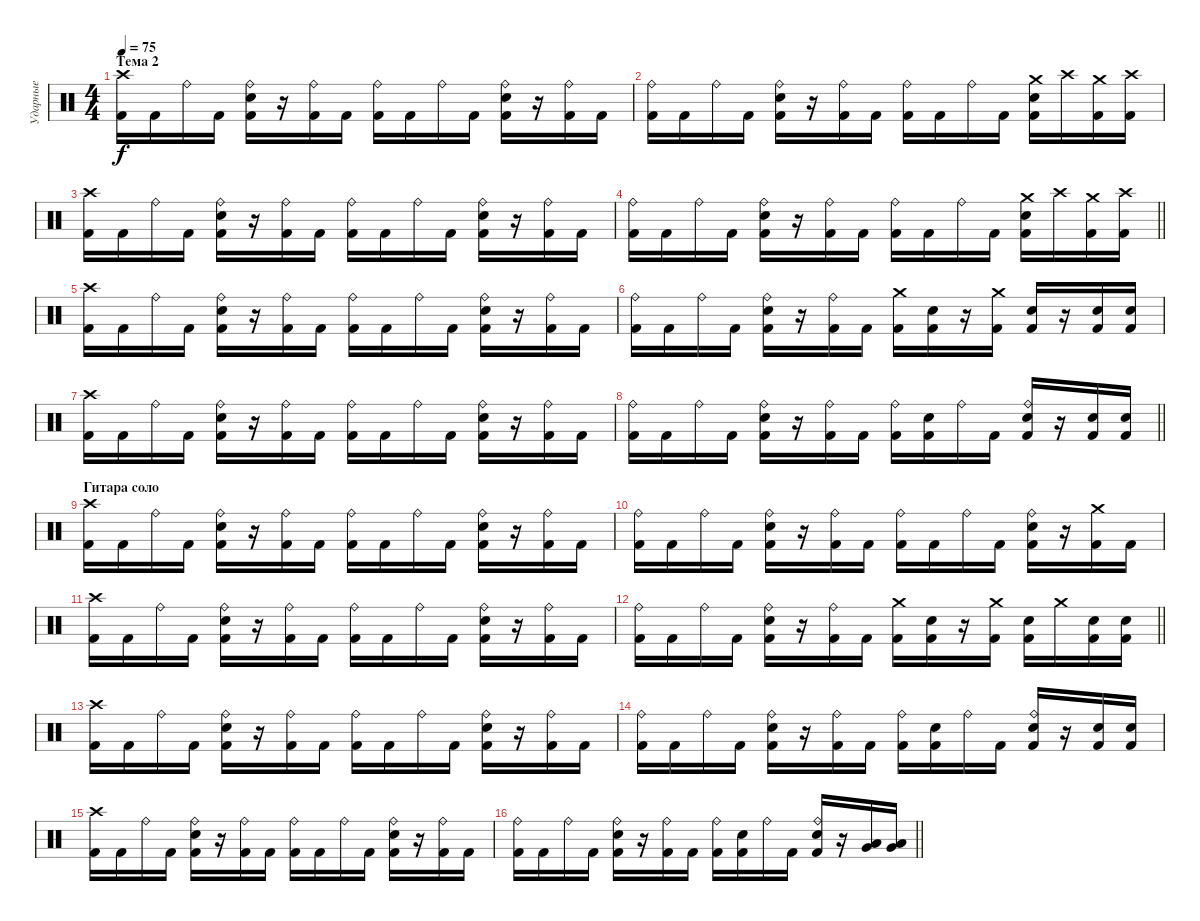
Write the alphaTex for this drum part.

\track ("Ударные" "Ударные") {instrument percussion}
\staff {score}
\articulation defaults
\ts (4 4)
\section ("" "Тема 2")
\tempo 75
\clef neutral
\ks c
("Kick (hit) 2" "Crash high (hit)").16{dy f} "Kick (hit) 2".16 "Ride (bell)".16 "Kick (hit) 2".16 ("Kick (hit) 2" "Snare (hit) 2" "Ride (bell)").16 r.16 ("Kick (hit) 2" "Ride (bell)").16 "Kick (hit) 2".16 ("Kick (hit) 2" "Ride (bell)").16 "Kick (hit) 2".16 "Ride (bell)".16 "Kick (hit) 2".16 ("Kick (hit) 2" "Snare (hit) 2" "Ride (bell)").16 r.16 ("Kick (hit) 2" "Ride (bell)").16 "Kick (hit) 2".16 |
("Kick (hit) 2" "Ride (bell)").16 "Kick (hit) 2".16 "Ride (bell)".16 "Kick (hit) 2".16 ("Kick (hit) 2" "Snare (hit) 2" "Ride (bell)").16 r.16 ("Kick (hit) 2" "Ride (bell)").16 "Kick (hit) 2".16 ("Kick (hit) 2" "Ride (bell)").16 "Kick (hit) 2".16 "Ride (bell)".16 "Kick (hit) 2".16 ("Kick (hit) 2" "Snare (hit) 2" "Crash medium (hit)").16 "Crash high (hit)".16 ("Kick (hit) 2" "Crash medium (hit)").16 ("Kick (hit) 2" "Crash high (hit)").16 |
("Kick (hit) 2" "Crash high (hit)").16 "Kick (hit) 2".16 "Ride (bell)".16 "Kick (hit) 2".16 ("Kick (hit) 2" "Snare (hit) 2" "Ride (bell)").16 r.16 ("Kick (hit) 2" "Ride (bell)").16 "Kick (hit) 2".16 ("Kick (hit) 2" "Ride (bell)").16 "Kick (hit) 2".16 "Ride (bell)".16 "Kick (hit) 2".16 ("Kick (hit) 2" "Snare (hit) 2" "Ride (bell)").16 r.16 ("Kick (hit) 2" "Ride (bell)").16 "Kick (hit) 2".16 |
\barLineRight lightlight
("Kick (hit) 2" "Ride (bell)").16 "Kick (hit) 2".16 "Ride (bell)".16 "Kick (hit) 2".16 ("Kick (hit) 2" "Snare (hit) 2" "Ride (bell)").16 r.16 ("Kick (hit) 2" "Ride (bell)").16 "Kick (hit) 2".16 ("Kick (hit) 2" "Ride (bell)").16 "Kick (hit) 2".16 "Ride (bell)".16 "Kick (hit) 2".16 ("Kick (hit) 2" "Snare (hit) 2" "Crash medium (hit)").16 "Crash high (hit)".16 ("Kick (hit) 2" "Crash medium (hit)").16 ("Kick (hit) 2" "Crash high (hit)").16 |
("Kick (hit) 2" "Crash high (hit)").16 "Kick (hit) 2".16 "Ride (bell)".16 "Kick (hit) 2".16 ("Kick (hit) 2" "Snare (hit) 2" "Ride (bell)").16 r.16 ("Kick (hit) 2" "Ride (bell)").16 "Kick (hit) 2".16 ("Kick (hit) 2" "Ride (bell)").16 "Kick (hit) 2".16 "Ride (bell)".16 "Kick (hit) 2".16 ("Kick (hit) 2" "Snare (hit) 2" "Ride (bell)").16 r.16 ("Kick (hit) 2" "Ride (bell)").16 "Kick (hit) 2".16 |
("Kick (hit) 2" "Ride (bell)").16 "Kick (hit) 2".16 "Ride (bell)".16 "Kick (hit) 2".16 ("Kick (hit) 2" "Snare (hit) 2" "Ride (bell)").16 r.16 ("Kick (hit) 2" "Ride (bell)").16 "Kick (hit) 2".16 ("Kick (hit) 2" "Crash medium (hit)").16 ("Kick (hit) 2" "Snare (hit) 2").16 r.16 ("Kick (hit) 2" "Crash medium (hit)").16 ("Kick (hit) 2" "Snare (hit) 2").16 r.16 ("Kick (hit) 2" "Snare (hit) 2").16 ("Kick (hit) 2" "Snare (hit) 2").16 |
("Kick (hit) 2" "Crash high (hit)").16 "Kick (hit) 2".16 "Ride (bell)".16 "Kick (hit) 2".16 ("Kick (hit) 2" "Snare (hit) 2" "Ride (bell)").16 r.16 ("Kick (hit) 2" "Ride (bell)").16 "Kick (hit) 2".16 ("Kick (hit) 2" "Ride (bell)").16 "Kick (hit) 2".16 "Ride (bell)".16 "Kick (hit) 2".16 ("Kick (hit) 2" "Snare (hit) 2" "Ride (bell)").16 r.16 ("Kick (hit) 2" "Ride (bell)").16 "Kick (hit) 2".16 |
\barLineRight lightlight
("Kick (hit) 2" "Ride (bell)").16 "Kick (hit) 2".16 "Ride (bell)".16 "Kick (hit) 2".16 ("Kick (hit) 2" "Snare (hit) 2" "Ride (bell)").16 r.16 ("Kick (hit) 2" "Ride (bell)").16 "Kick (hit) 2".16 ("Kick (hit) 2" "Ride (bell)").16 ("Kick (hit) 2" "Snare (hit) 2").16 "Ride (bell)".16 "Kick (hit) 2".16 ("Kick (hit) 2" "Snare (hit) 2" "Ride (bell)").16 r.16 ("Kick (hit) 2" "Snare (hit) 2").16 ("Kick (hit) 2" "Snare (hit) 2").16 |
\section ("" "Гитара соло")
("Kick (hit) 2" "Crash high (hit)").16 "Kick (hit) 2".16 "Ride (bell)".16 "Kick (hit) 2".16 ("Kick (hit) 2" "Snare (hit) 2" "Ride (bell)").16 r.16 ("Kick (hit) 2" "Ride (bell)").16 "Kick (hit) 2".16 ("Kick (hit) 2" "Ride (bell)").16 "Kick (hit) 2".16 "Ride (bell)".16 "Kick (hit) 2".16 ("Kick (hit) 2" "Snare (hit) 2" "Ride (bell)").16 r.16 ("Kick (hit) 2" "Ride (bell)").16 "Kick (hit) 2".16 |
("Kick (hit) 2" "Ride (bell)").16 "Kick (hit) 2".16 "Ride (bell)".16 "Kick (hit) 2".16 ("Kick (hit) 2" "Snare (hit) 2" "Ride (bell)").16 r.16 ("Kick (hit) 2" "Ride (bell)").16 "Kick (hit) 2".16 ("Kick (hit) 2" "Ride (bell)").16 "Kick (hit) 2".16 "Ride (bell)".16 "Kick (hit) 2".16 ("Kick (hit) 2" "Snare (hit) 2" "Ride (bell)").16 r.16 ("Kick (hit) 2" "Crash medium (hit)").16 "Kick (hit) 2".16 |
("Kick (hit) 2" "Crash high (hit)").16 "Kick (hit) 2".16 "Ride (bell)".16 "Kick (hit) 2".16 ("Kick (hit) 2" "Snare (hit) 2" "Ride (bell)").16 r.16 ("Kick (hit) 2" "Ride (bell)").16 "Kick (hit) 2".16 ("Kick (hit) 2" "Ride (bell)").16 "Kick (hit) 2".16 "Ride (bell)".16 "Kick (hit) 2".16 ("Kick (hit) 2" "Snare (hit) 2" "Ride (bell)").16 r.16 ("Kick (hit) 2" "Ride (bell)").16 "Kick (hit) 2".16 |
\barLineRight lightlight
("Kick (hit) 2" "Ride (bell)").16 "Kick (hit) 2".16 "Ride (bell)".16 "Kick (hit) 2".16 ("Kick (hit) 2" "Snare (hit) 2" "Ride (bell)").16 r.16 ("Kick (hit) 2" "Ride (bell)").16 "Kick (hit) 2".16 ("Kick (hit) 2" "Crash medium (hit)").16 ("Kick (hit) 2" "Snare (hit) 2").16 r.16 ("Kick (hit) 2" "Crash medium (hit)").16 ("Kick (hit) 2" "Snare (hit) 2").16 "Crash medium (hit)".16 ("Kick (hit) 2" "Snare (hit) 2").16 ("Kick (hit) 2" "Snare (hit) 2").16 |
("Kick (hit) 2" "Crash high (hit)").16 "Kick (hit) 2".16 "Ride (bell)".16 "Kick (hit) 2".16 ("Kick (hit) 2" "Snare (hit) 2" "Ride (bell)").16 r.16 ("Kick (hit) 2" "Ride (bell)").16 "Kick (hit) 2".16 ("Kick (hit) 2" "Ride (bell)").16 "Kick (hit) 2".16 "Ride (bell)".16 "Kick (hit) 2".16 ("Kick (hit) 2" "Snare (hit) 2" "Ride (bell)").16 r.16 ("Kick (hit) 2" "Ride (bell)").16 "Kick (hit) 2".16 |
("Kick (hit) 2" "Ride (bell)").16 "Kick (hit) 2".16 "Ride (bell)".16 "Kick (hit) 2".16 ("Kick (hit) 2" "Snare (hit) 2" "Ride (bell)").16 r.16 ("Kick (hit) 2" "Ride (bell)").16 "Kick (hit) 2".16 ("Kick (hit) 2" "Ride (bell)").16 ("Kick (hit) 2" "Snare (hit) 2").16 "Ride (bell)".16 "Kick (hit) 2".16 ("Kick (hit) 2" "Snare (hit) 2" "Ride (bell)").16 r.16 ("Kick (hit) 2" "Snare (hit) 2").16 ("Kick (hit) 2" "Snare (hit) 2").16 |
("Kick (hit) 2" "Crash high (hit)").16 "Kick (hit) 2".16 "Ride (bell)".16 "Kick (hit) 2".16 ("Kick (hit) 2" "Snare (hit) 2" "Ride (bell)").16 r.16 ("Kick (hit) 2" "Ride (bell)").16 "Kick (hit) 2".16 ("Kick (hit) 2" "Ride (bell)").16 "Kick (hit) 2".16 "Ride (bell)".16 "Kick (hit) 2".16 ("Kick (hit) 2" "Snare (hit) 2" "Ride (bell)").16 r.16 ("Kick (hit) 2" "Ride (bell)").16 "Kick (hit) 2".16 |
\barLineRight lightlight
("Kick (hit) 2" "Ride (bell)").16 "Kick (hit) 2".16 "Ride (bell)".16 "Kick (hit) 2".16 ("Kick (hit) 2" "Snare (hit) 2" "Ride (bell)").16 r.16 ("Kick (hit) 2" "Ride (bell)").16 "Kick (hit) 2".16 ("Kick (hit) 2" "Ride (bell)").16 ("Kick (hit) 2" "Snare (hit) 2").16 "Ride (bell)".16 "Kick (hit) 2".16 ("Kick (hit) 2" "Snare (hit) 2" "Ride (bell)").16 r.16 ("Very Low Tom (hit)" "Low Floor Tom (hit)").16 ("Very Low Tom (hit)" "Low Floor Tom (hit)").16
